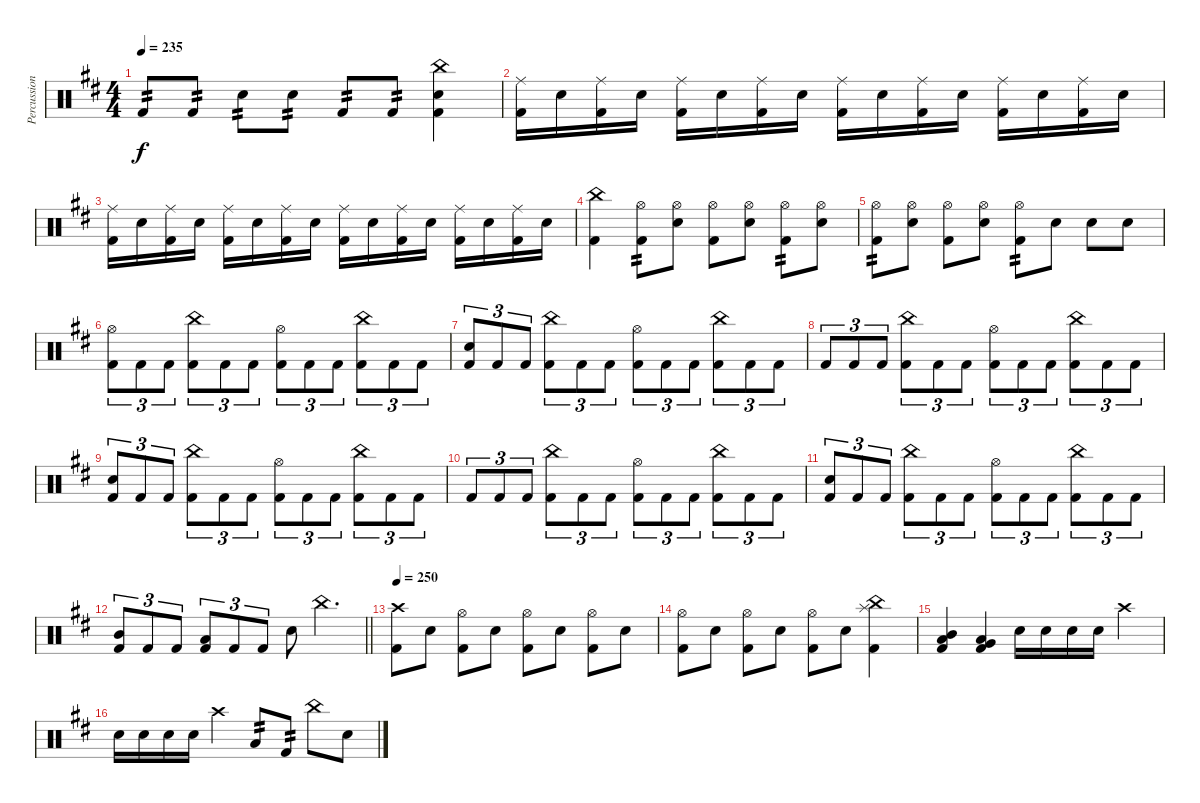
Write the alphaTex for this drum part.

\track ("Percussion" "Percussion") {instrument percussion}
\staff {score}
\articulation defaults
\ts (4 4)
\tempo 235
\clef neutral
\ks d "Kick (hit) 2".8{tp 2 dy f} "Kick (hit) 2".8{tp 2} "Electric Snare (hit)".8{tp 2} "Electric Snare (hit)".8{tp 2} "Kick (hit) 2".8{tp 2} "Kick (hit) 2".8{tp 2}
("China (hit)" "Electric Snare (hit)" "Kick (hit) 2").4 |
("Ride (middle)" "Kick (hit) 2").16 "Electric Snare (hit)".16 ("Ride (middle)" "Kick (hit) 2").16 "Electric Snare (hit)".16 ("Ride (middle)" "Kick (hit) 2").16 "Electric Snare (hit)".16 ("Ride (middle)" "Kick (hit) 2").16 "Electric Snare (hit)".16 ("Ride (middle)" "Kick (hit) 2").16 "Electric Snare (hit)".16 ("Ride (middle)" "Kick (hit) 2").16 "Electric Snare (hit)".16 ("Ride (middle)" "Kick (hit) 2").16 "Electric Snare (hit)".16 ("Ride (middle)" "Kick (hit) 2").16 "Electric Snare (hit)".16 |
("Ride (middle)" "Kick (hit) 2").16 "Electric Snare (hit)".16 ("Ride (middle)" "Kick (hit) 2").16 "Electric Snare (hit)".16 ("Ride (middle)" "Kick (hit) 2").16 "Electric Snare (hit)".16 ("Ride (middle)" "Kick (hit) 2").16 "Electric Snare (hit)".16 ("Ride (middle)" "Kick (hit) 2").16 "Electric Snare (hit)".16 ("Ride (middle)" "Kick (hit) 2").16 "Electric Snare (hit)".16 ("Ride (middle)" "Kick (hit) 2").16 "Electric Snare (hit)".16 ("Ride (middle)" "Kick (hit) 2").16 "Electric Snare (hit)".16 |
("China (hit)" "Kick (hit) 2").4 ("Hi-Hat (open)" "Kick (hit) 2").8{tp 2} ("Hi-Hat (open)" "Electric Snare (hit)").8 ("Hi-Hat (open)" "Kick (hit) 2").8 ("Hi-Hat (open)" "Electric Snare (hit)").8 ("Hi-Hat (open)" "Kick (hit) 2").8{tp 2} ("Hi-Hat (open)" "Electric Snare (hit)").8 |
("Hi-Hat (open)" "Kick (hit) 2").8{tp 2} ("Hi-Hat (open)" "Electric Snare (hit)").8 ("Hi-Hat (open)" "Kick (hit) 2").8 ("Hi-Hat (open)" "Electric Snare (hit)").8 ("Hi-Hat (open)" "Kick (hit) 2").8{tp 2} "Electric Snare (hit)".8 "Electric Snare (hit)".8 "Electric Snare (hit)".8 |
("Kick (hit) 2" "Hi-Hat (open)").8{tu (3 2)} "Kick (hit) 2".8{tu (3 2)} "Kick (hit) 2".8{tu (3 2)} ("Kick (hit) 2" "China (hit)").8{tu (3 2)} "Kick (hit) 2".8{tu (3 2)} "Kick (hit) 2".8{tu (3 2)} ("Kick (hit) 2" "Hi-Hat (open)").8{tu (3 2)} "Kick (hit) 2".8{tu (3 2)} "Kick (hit) 2".8{tu (3 2)} ("Kick (hit) 2" "China (hit)").8{tu (3 2)} "Kick (hit) 2".8{tu (3 2)} "Kick (hit) 2".8{tu (3 2)} |
("Kick (hit) 2" "Electric Snare (hit)").8{tu (3 2)} "Kick (hit) 2".8{tu (3 2)} "Kick (hit) 2".8{tu (3 2)} ("Kick (hit) 2" "China (hit)").8{tu (3 2)} "Kick (hit) 2".8{tu (3 2)} "Kick (hit) 2".8{tu (3 2)} ("Kick (hit) 2" "Hi-Hat (open)").8{tu (3 2)} "Kick (hit) 2".8{tu (3 2)} "Kick (hit) 2".8{tu (3 2)} ("Kick (hit) 2" "China (hit)").8{tu (3 2)} "Kick (hit) 2".8{tu (3 2)} "Kick (hit) 2".8{tu (3 2)} |
"Kick (hit) 2".8{tu (3 2)} "Kick (hit) 2".8{tu (3 2)} "Kick (hit) 2".8{tu (3 2)} ("Kick (hit) 2" "China (hit)").8{tu (3 2)} "Kick (hit) 2".8{tu (3 2)} "Kick (hit) 2".8{tu (3 2)} ("Kick (hit) 2" "Hi-Hat (open)").8{tu (3 2)} "Kick (hit) 2".8{tu (3 2)} "Kick (hit) 2".8{tu (3 2)} ("Kick (hit) 2" "China (hit)").8{tu (3 2)} "Kick (hit) 2".8{tu (3 2)} "Kick (hit) 2".8{tu (3 2)} |
("Kick (hit) 2" "Electric Snare (hit)").8{tu (3 2)} "Kick (hit) 2".8{tu (3 2)} "Kick (hit) 2".8{tu (3 2)} ("Kick (hit) 2" "China (hit)").8{tu (3 2)} "Kick (hit) 2".8{tu (3 2)} "Kick (hit) 2".8{tu (3 2)} ("Kick (hit) 2" "Hi-Hat (open)").8{tu (3 2)} "Kick (hit) 2".8{tu (3 2)} "Kick (hit) 2".8{tu (3 2)} ("Kick (hit) 2" "China (hit)").8{tu (3 2)} "Kick (hit) 2".8{tu (3 2)} "Kick (hit) 2".8{tu (3 2)} |
"Kick (hit) 2".8{tu (3 2)} "Kick (hit) 2".8{tu (3 2)} "Kick (hit) 2".8{tu (3 2)} ("Kick (hit) 2" "China (hit)").8{tu (3 2)} "Kick (hit) 2".8{tu (3 2)} "Kick (hit) 2".8{tu (3 2)} ("Kick (hit) 2" "Hi-Hat (open)").8{tu (3 2)} "Kick (hit) 2".8{tu (3 2)} "Kick (hit) 2".8{tu (3 2)} ("Kick (hit) 2" "China (hit)").8{tu (3 2)} "Kick (hit) 2".8{tu (3 2)} "Kick (hit) 2".8{tu (3 2)} |
("Kick (hit) 2" "Electric Snare (hit)").8{tu (3 2)} "Kick (hit) 2".8{tu (3 2)} "Kick (hit) 2".8{tu (3 2)} ("Kick (hit) 2" "China (hit)").8{tu (3 2)} "Kick (hit) 2".8{tu (3 2)} "Kick (hit) 2".8{tu (3 2)} ("Kick (hit) 2" "Hi-Hat (open)").8{tu (3 2)} "Kick (hit) 2".8{tu (3 2)} "Kick (hit) 2".8{tu (3 2)} ("Kick (hit) 2" "China (hit)").8{tu (3 2)} "Kick (hit) 2".8{tu (3 2)} "Kick (hit) 2".8{tu (3 2)} |
\barLineRight lightlight
("Kick (hit) 2" "Mid Tom (hit)").8{tu (3 2)} "Kick (hit) 2".8{tu (3 2)} "Kick (hit) 2".8{tu (3 2)} ("Kick (hit) 2" "Low Tom (hit)").8{tu (3 2)} "Kick (hit) 2".8{tu (3 2)} "Kick (hit) 2".8{tu (3 2)} "Electric Snare (hit)".8 "China (hit)".4{d} |
\tempo 250
("Crash high (hit)" "Kick (hit) 2").8 "Electric Snare (hit)".8 ("Hi-Hat (open)" "Kick (hit) 2").8 "Electric Snare (hit)".8 ("Hi-Hat (open)" "Kick (hit) 2").8 "Electric Snare (hit)".8 ("Hi-Hat (open)" "Kick (hit) 2").8 "Electric Snare (hit)".8 |
("Hi-Hat (open)" "Kick (hit) 2").8 "Electric Snare (hit)".8 ("Hi-Hat (open)" "Kick (hit) 2").8 "Electric Snare (hit)".8 ("Hi-Hat (open)" "Kick (hit) 2").8 "Electric Snare (hit)".8 ("Splash (hit)" "China (hit)" "Kick (hit) 2").4 |
("Kick (hit) 2" "Mid Tom (hit)" "Low Tom (hit)").4 ("Kick (hit) 2" "Low Tom (hit)" "Very Low Tom (hit)").4 "Electric Snare (hit)".16 "Electric Snare (hit)".16 "Electric Snare (hit)".16 "Electric Snare (hit)".16 "Crash high (hit)".4 |
"Electric Snare (hit)".16 "Electric Snare (hit)".16 "Electric Snare (hit)".16 "Electric Snare (hit)".16 "Crash high (hit)".4 "Low Tom (hit)".8{tp 2} "Kick (hit) 2".8{tp 2} "China (hit)".8 "Electric Snare (hit)".8
